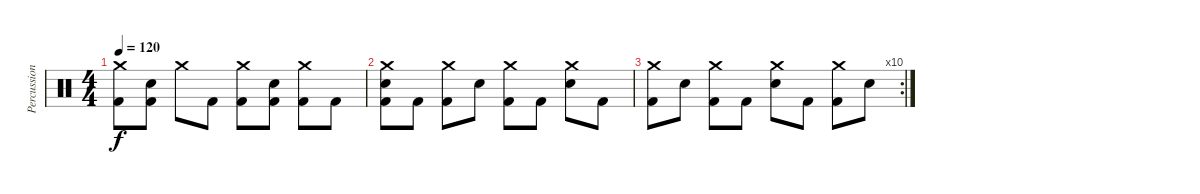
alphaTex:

\track ("Percussion" "Percussion") {instrument percussion}
\staff {score}
\articulation defaults
\ts (4 4)
\tempo 120
\clef neutral
\ks c
("Crash medium (hit)" "Kick (hit) 2").8{dy f} ("Snare (hit) 2" "Kick (hit) 2").8 "Crash medium (hit)".8 "Kick (hit) 2".8 ("Crash medium (hit)" "Kick (hit) 2").8 ("Snare (hit) 2" "Kick (hit) 2").8 ("Crash medium (hit)" "Kick (hit) 2").8 "Kick (hit) 2".8 |
("Crash medium (hit)" "Snare (hit) 2" "Kick (hit) 2").8 "Kick (hit) 2".8 ("Crash medium (hit)" "Kick (hit) 2").8 "Snare (hit) 2".8 ("Crash medium (hit)" "Kick (hit) 2").8 "Kick (hit) 2".8 ("Crash medium (hit)" "Snare (hit) 2").8 "Kick (hit) 2".8 |
\rc 10
("Crash medium (hit)" "Kick (hit) 2").8 "Snare (hit) 2".8 ("Crash medium (hit)" "Kick (hit) 2").8 "Kick (hit) 2".8 ("Crash medium (hit)" "Snare (hit) 2").8 "Kick (hit) 2".8 ("Crash medium (hit)" "Kick (hit) 2").8 "Snare (hit) 2".8
